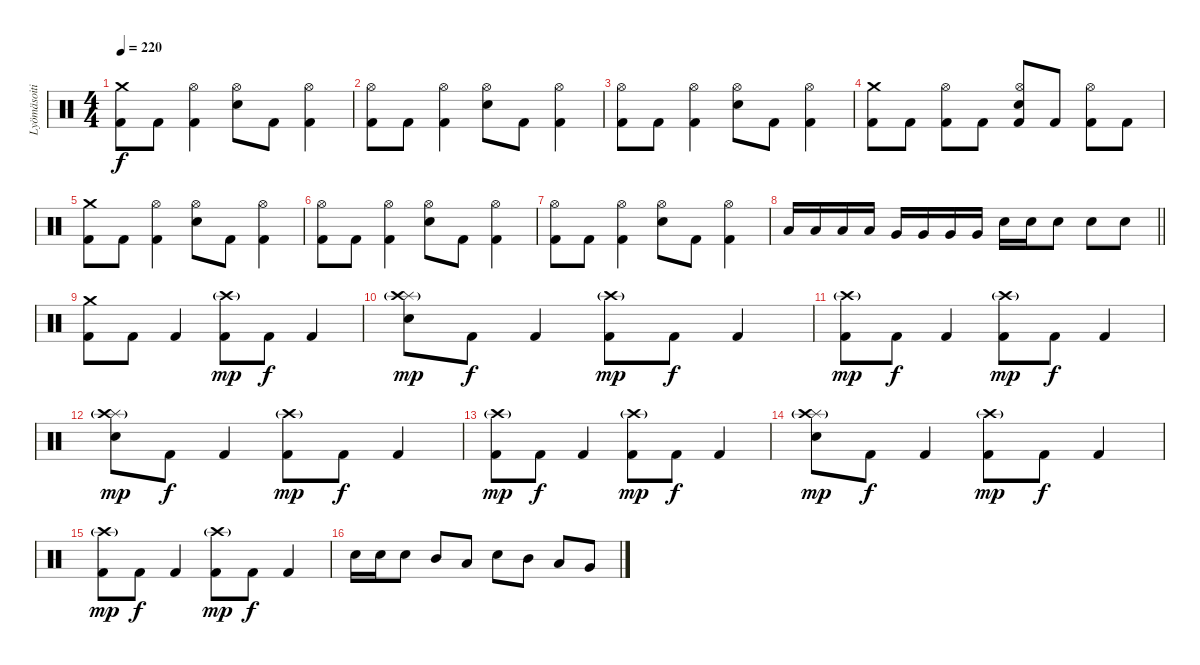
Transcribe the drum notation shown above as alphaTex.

\track ("Lyömäsoitin" "Lyömäsoiti") {instrument percussion}
\staff {score}
\articulation defaults
\ts (4 4)
\section ("" "")
\tempo 220
\clef neutral
\ks c
("Crash medium (hit)" "Kick (hit) 2").8{dy f} "Kick (hit) 2".8 ("Hi-Hat (open)" "Kick (hit) 2").4 ("Hi-Hat (open)" "Electric Snare (hit)").8 "Kick (hit) 2".8 ("Hi-Hat (open)" "Kick (hit) 2").4 |
("Hi-Hat (open)" "Kick (hit) 2").8 "Kick (hit) 2".8 ("Hi-Hat (open)" "Kick (hit) 2").4 ("Hi-Hat (open)" "Electric Snare (hit)").8 "Kick (hit) 2".8 ("Hi-Hat (open)" "Kick (hit) 2").4 |
("Hi-Hat (open)" "Kick (hit) 2").8 "Kick (hit) 2".8 ("Hi-Hat (open)" "Kick (hit) 2").4 ("Hi-Hat (open)" "Electric Snare (hit)").8 "Kick (hit) 2".8 ("Hi-Hat (open)" "Kick (hit) 2").4 |
("Crash medium (hit)" "Kick (hit) 2").8 "Kick (hit) 2".8 ("Hi-Hat (open)" "Kick (hit) 2").8 "Kick (hit) 2".8 ("Hi-Hat (open)" "Electric Snare (hit)" "Kick (hit) 2").8 "Kick (hit) 2".8 ("Hi-Hat (open)" "Kick (hit) 2").8 "Kick (hit) 2".8 |
("Crash medium (hit)" "Kick (hit) 2").8 "Kick (hit) 2".8 ("Hi-Hat (open)" "Kick (hit) 2").4 ("Hi-Hat (open)" "Electric Snare (hit)").8 "Kick (hit) 2".8 ("Hi-Hat (open)" "Kick (hit) 2").4 |
("Hi-Hat (open)" "Kick (hit) 2").8 "Kick (hit) 2".8 ("Hi-Hat (open)" "Kick (hit) 2").4 ("Hi-Hat (open)" "Electric Snare (hit)").8 "Kick (hit) 2".8 ("Hi-Hat (open)" "Kick (hit) 2").4 |
("Hi-Hat (open)" "Kick (hit) 2").8 "Kick (hit) 2".8 ("Hi-Hat (open)" "Kick (hit) 2").4 ("Hi-Hat (open)" "Electric Snare (hit)").8 "Kick (hit) 2".8 ("Hi-Hat (open)" "Kick (hit) 2").4 |
\barLineRight lightlight "Low Tom (hit)".16 "Low Tom (hit)".16 "Low Tom (hit)".16 "Low Tom (hit)".16 "Very Low Tom (hit)".16 "Very Low Tom (hit)".16 "Very Low Tom (hit)".16 "Very Low Tom (hit)".16 "Electric Snare (hit)".16 "Electric Snare (hit)".16 "Electric Snare (hit)".8 "Electric Snare (hit)".8 "Electric Snare (hit)".8
|
\section ("" "")
("Crash medium (hit)" "Kick (hit) 2").8 "Kick (hit) 2".8 "Kick (hit) 2".4 ("Crash high (hit)"{g} "Kick (hit) 2").8{dy mp} "Kick (hit) 2".8{dy f} "Kick (hit) 2".4 |
("Splash (hit)" "Crash high (hit)"{g} "Electric Snare (hit)").8{dy mp} "Kick (hit) 2".8{dy f} "Kick (hit) 2".4 ("Crash high (hit)"{g} "Kick (hit) 2").8{dy mp} "Kick (hit) 2".8{dy f} "Kick (hit) 2".4 |
("Crash high (hit)"{g} "Kick (hit) 2").8{dy mp} "Kick (hit) 2".8{dy f} "Kick (hit) 2".4 ("Crash high (hit)"{g} "Kick (hit) 2").8{dy mp} "Kick (hit) 2".8{dy f} "Kick (hit) 2".4 |
("Splash (hit)" "Crash high (hit)"{g} "Electric Snare (hit)").8{dy mp} "Kick (hit) 2".8{dy f} "Kick (hit) 2".4 ("Crash high (hit)"{g} "Kick (hit) 2").8{dy mp} "Kick (hit) 2".8{dy f} "Kick (hit) 2".4 |
("Crash high (hit)"{g} "Kick (hit) 2").8{dy mp} "Kick (hit) 2".8{dy f} "Kick (hit) 2".4 ("Crash high (hit)"{g} "Kick (hit) 2").8{dy mp} "Kick (hit) 2".8{dy f} "Kick (hit) 2".4 |
("Splash (hit)" "Crash high (hit)"{g} "Electric Snare (hit)").8{dy mp} "Kick (hit) 2".8{dy f} "Kick (hit) 2".4 ("Crash high (hit)"{g} "Kick (hit) 2").8{dy mp} "Kick (hit) 2".8{dy f} "Kick (hit) 2".4 |
("Crash high (hit)"{g} "Kick (hit) 2").8{dy mp} "Kick (hit) 2".8{dy f} "Kick (hit) 2".4 ("Crash high (hit)"{g} "Kick (hit) 2").8{dy mp} "Kick (hit) 2".8{dy f} "Kick (hit) 2".4 |
"Electric Snare (hit)".16 "Electric Snare (hit)".16 "Electric Snare (hit)".8 "Mid Tom (hit)".8 "Low Tom (hit)".8 "Electric Snare (hit)".8 "Mid Tom (hit)".8 "Low Tom (hit)".8 "Very Low Tom (hit)".8
